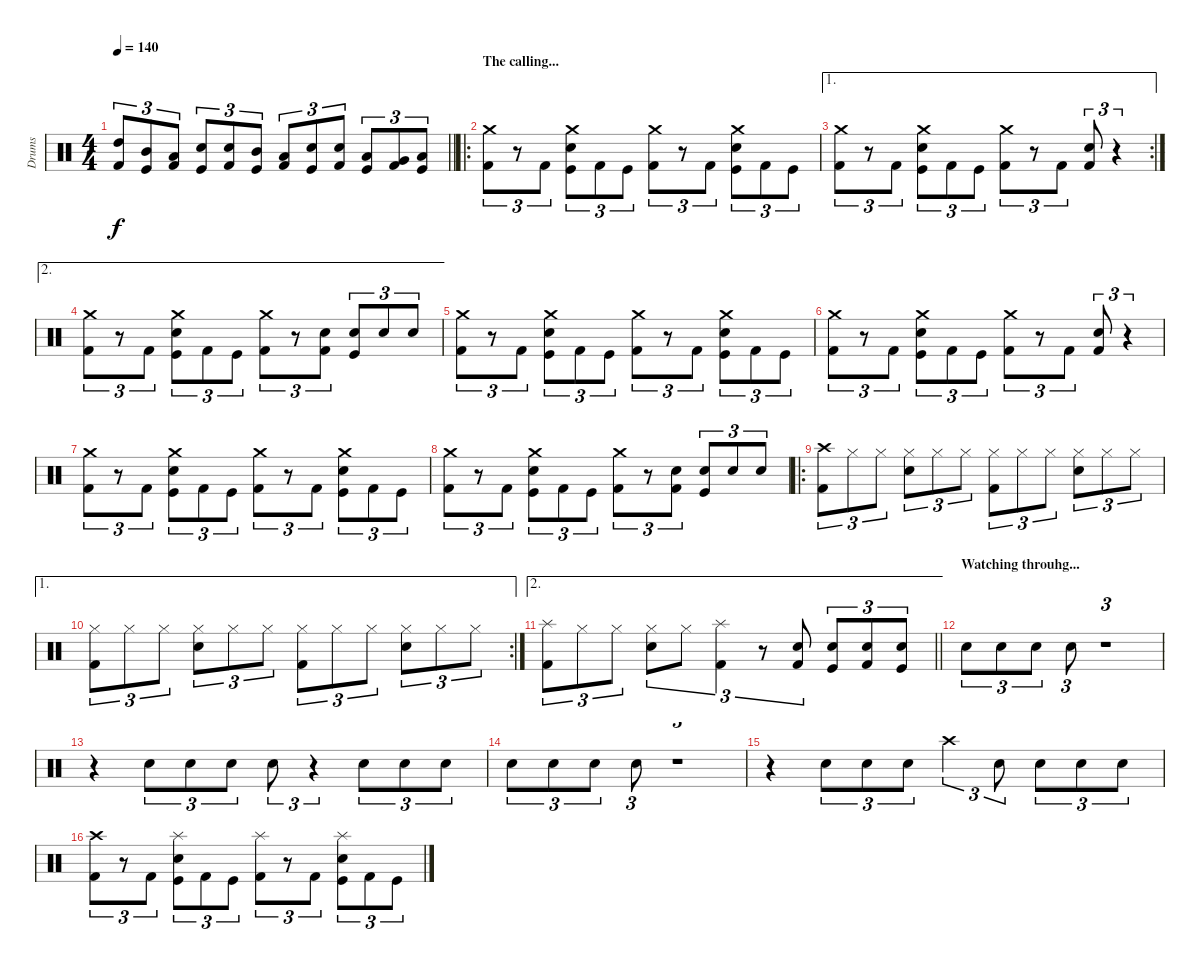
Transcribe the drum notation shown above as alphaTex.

\track ("Drums" "Drums") {instrument percussion}
\staff {score}
\articulation defaults
\ts (4 4)
\tempo 140
\clef neutral
\barLineRight lightlight
\ks c
("High Tom (hit)" "Kick (hit) 2").8{tu (3 2) dy f} ("Mid Tom (hit)" "Kick (hit)").8{tu (3 2)} ("Low Tom (hit)" "Kick (hit) 2").8{tu (3 2)} ("Snare (hit) 2" "Kick (hit)").8{tu (3 2)} ("Snare (hit) 2" "Kick (hit) 2").8{tu (3 2)} ("Mid Tom (hit)" "Kick (hit)").8{tu (3 2)} ("Low Tom (hit)" "Kick (hit) 2").8{tu (3 2)} ("Snare (hit) 2" "Kick (hit)").8{tu (3 2)} ("Snare (hit) 2" "Kick (hit) 2").8{tu (3 2)} ("Low Tom (hit)" "Kick (hit)").8{tu (3 2)} ("Very Low Tom (hit)" "Kick (hit) 2").8{tu (3 2)} ("Low Floor Tom (hit)" "Kick (hit)").8{tu (3 2)} |
\ro
\section ("" "The calling...")
("Crash medium (hit)" "Kick (hit) 2").8{tu (3 2)} r.8{tu (3 2)} "Kick (hit) 2".8{tu (3 2)} ("Crash medium (hit)" "Snare (hit) 2" "Kick (hit)").8{tu (3 2)} "Kick (hit) 2".8{tu (3 2)} "Kick (hit)".8{tu (3 2)} ("Crash medium (hit)" "Kick (hit) 2").8{tu (3 2)} r.8{tu (3 2)} "Kick (hit) 2".8{tu (3 2)} ("Crash medium (hit)" "Snare (hit) 2" "Kick (hit)").8{tu (3 2)} "Kick (hit) 2".8{tu (3 2)} "Kick (hit)".8{tu (3 2)} |
\ae 1
\rc 2
("Crash medium (hit)" "Kick (hit) 2").8{tu (3 2)} r.8{tu (3 2)} "Kick (hit) 2".8{tu (3 2)} ("Crash medium (hit)" "Snare (hit) 2" "Kick (hit)").8{tu (3 2)} "Kick (hit) 2".8{tu (3 2)} "Kick (hit)".8{tu (3 2)} ("Crash medium (hit)" "Kick (hit) 2").8{tu (3 2)} r.8{tu (3 2)} "Kick (hit) 2".8{tu (3 2)} ("Snare (hit) 2" "Kick (hit) 2").8{tu (3 2)} r.4{tu (3 2)} |
\ae 2
("Crash medium (hit)" "Kick (hit) 2").8{tu (3 2)} r.8{tu (3 2)} "Kick (hit) 2".8{tu (3 2)} ("Crash medium (hit)" "Snare (hit) 2" "Kick (hit)").8{tu (3 2)} "Kick (hit) 2".8{tu (3 2)} "Kick (hit)".8{tu (3 2)} ("Crash medium (hit)" "Kick (hit) 2").8{tu (3 2)} r.8{tu (3 2)} ("Snare (hit) 2" "Kick (hit) 2").8{tu (3 2)} ("Snare (hit) 2" "Kick (hit)").8{tu (3 2)} "Snare (hit) 2".8{tu (3 2)} "Snare (hit) 2".8{tu (3 2)} |
("Crash medium (hit)" "Kick (hit) 2").8{tu (3 2)} r.8{tu (3 2)} "Kick (hit) 2".8{tu (3 2)} ("Crash medium (hit)" "Snare (hit) 2" "Kick (hit)").8{tu (3 2)} "Kick (hit) 2".8{tu (3 2)} "Kick (hit)".8{tu (3 2)} ("Crash medium (hit)" "Kick (hit) 2").8{tu (3 2)} r.8{tu (3 2)} "Kick (hit) 2".8{tu (3 2)} ("Crash medium (hit)" "Snare (hit) 2" "Kick (hit)").8{tu (3 2)} "Kick (hit) 2".8{tu (3 2)} "Kick (hit)".8{tu (3 2)} |
("Crash medium (hit)" "Kick (hit) 2").8{tu (3 2)} r.8{tu (3 2)} "Kick (hit) 2".8{tu (3 2)} ("Crash medium (hit)" "Snare (hit) 2" "Kick (hit)").8{tu (3 2)} "Kick (hit) 2".8{tu (3 2)} "Kick (hit)".8{tu (3 2)} ("Crash medium (hit)" "Kick (hit) 2").8{tu (3 2)} r.8{tu (3 2)} "Kick (hit) 2".8{tu (3 2)} ("Snare (hit) 2" "Kick (hit) 2").8{tu (3 2)} r.4{tu (3 2)} |
("Crash medium (hit)" "Kick (hit) 2").8{tu (3 2)} r.8{tu (3 2)} "Kick (hit) 2".8{tu (3 2)} ("Crash medium (hit)" "Snare (hit) 2" "Kick (hit)").8{tu (3 2)} "Kick (hit) 2".8{tu (3 2)} "Kick (hit)".8{tu (3 2)} ("Crash medium (hit)" "Kick (hit) 2").8{tu (3 2)} r.8{tu (3 2)} "Kick (hit) 2".8{tu (3 2)} ("Crash medium (hit)" "Snare (hit) 2" "Kick (hit)").8{tu (3 2)} "Kick (hit) 2".8{tu (3 2)} "Kick (hit)".8{tu (3 2)} |
("Crash medium (hit)" "Kick (hit) 2").8{tu (3 2)} r.8{tu (3 2)} "Kick (hit) 2".8{tu (3 2)} ("Crash medium (hit)" "Snare (hit) 2" "Kick (hit)").8{tu (3 2)} "Kick (hit) 2".8{tu (3 2)} "Kick (hit)".8{tu (3 2)} ("Crash medium (hit)" "Kick (hit) 2").8{tu (3 2)} r.8{tu (3 2)} ("Snare (hit) 2" "Kick (hit) 2").8{tu (3 2)} ("Snare (hit) 2" "Kick (hit)").8{tu (3 2)} "Snare (hit) 2".8{tu (3 2)} "Snare (hit) 2".8{tu (3 2)} |
\ro
("Crash high (hit)" "Kick (hit) 2").8{tu (3 2)} "Hi-Hat (closed)".8{tu (3 2)} "Hi-Hat (closed)".8{tu (3 2)} ("Hi-Hat (closed)" "Snare (hit) 2").8{tu (3 2)} "Hi-Hat (closed)".8{tu (3 2)} "Hi-Hat (closed)".8{tu (3 2)} ("Hi-Hat (closed)" "Kick (hit) 2").8{tu (3 2)} "Hi-Hat (closed)".8{tu (3 2)} "Hi-Hat (closed)".8{tu (3 2)} ("Hi-Hat (closed)" "Snare (hit) 2").8{tu (3 2)} "Hi-Hat (closed)".8{tu (3 2)} "Hi-Hat (closed)".8{tu (3 2)} |
\ae 1
\rc 2
("Hi-Hat (closed)" "Kick (hit) 2").8{tu (3 2)} "Hi-Hat (closed)".8{tu (3 2)} "Hi-Hat (closed)".8{tu (3 2)} ("Hi-Hat (closed)" "Snare (hit) 2").8{tu (3 2)} "Hi-Hat (closed)".8{tu (3 2)} "Hi-Hat (closed)".8{tu (3 2)} ("Hi-Hat (closed)" "Kick (hit) 2").8{tu (3 2)} "Hi-Hat (closed)".8{tu (3 2)} "Hi-Hat (closed)".8{tu (3 2)} ("Hi-Hat (closed)" "Snare (hit) 2").8{tu (3 2)} "Hi-Hat (closed)".8{tu (3 2)} "Hi-Hat (closed)".8{tu (3 2)} |
\ae 2
\barLineRight lightlight
("Splash (hit)" "Kick (hit) 2").8{tu (3 2)} "Hi-Hat (closed)".8{tu (3 2)} "Hi-Hat (closed)".8{tu (3 2)} ("Hi-Hat (closed)" "Snare (hit) 2").8{tu (3 2)} "Hi-Hat (closed)".8{tu (3 2)} ("Splash (hit)" "Kick (hit) 2").4{tu (3 2)} r.8{tu (3 2)} ("Snare (hit) 2" "Kick (hit) 2").8{tu (3 2)} ("Snare (hit) 2" "Kick (hit)").8{tu (3 2)} ("Snare (hit) 2" "Kick (hit) 2").8{tu (3 2)} ("Snare (hit) 2" "Kick (hit)").8{tu (3 2)} |
\section ("" "Watching throuhg...")
"Snare (hit) 2".8{tu (3 2)} "Snare (hit) 2".8{tu (3 2)} "Snare (hit) 2".8{tu (3 2)} "Snare (hit) 2".8{tu (3 2)} r.1{tu (3 2)} |
r.4 "Snare (hit) 2".8{tu (3 2)} "Snare (hit) 2".8{tu (3 2)} "Snare (hit) 2".8{tu (3 2)} "Snare (hit) 2".8{tu (3 2)} r.4{tu (3 2)} "Snare (hit) 2".8{tu (3 2)} "Snare (hit) 2".8{tu (3 2)} "Snare (hit) 2".8{tu (3 2)} |
"Snare (hit) 2".8{tu (3 2)} "Snare (hit) 2".8{tu (3 2)} "Snare (hit) 2".8{tu (3 2)} "Snare (hit) 2".8{tu (3 2)} r.1{tu (3 2)} |
r.4 "Snare (hit) 2".8{tu (3 2)} "Snare (hit) 2".8{tu (3 2)} "Snare (hit) 2".8{tu (3 2)} "Crash high (hit)".4{tu (3 2)} "Snare (hit) 2".8{tu (3 2)} "Snare (hit) 2".8{tu (3 2)} "Snare (hit) 2".8{tu (3 2)} "Snare (hit) 2".8{tu (3 2)} |
("Crash high (hit)" "Kick (hit) 2").8{tu (3 2)} r.8{tu (3 2)} "Kick (hit) 2".8{tu (3 2)} ("Splash (hit)" "Snare (hit) 2" "Kick (hit)").8{tu (3 2)} "Kick (hit) 2".8{tu (3 2)} "Kick (hit)".8{tu (3 2)} ("Splash (hit)" "Kick (hit) 2").8{tu (3 2)} r.8{tu (3 2)} "Kick (hit) 2".8{tu (3 2)} ("Splash (hit)" "Snare (hit) 2" "Kick (hit)").8{tu (3 2)} "Kick (hit) 2".8{tu (3 2)} "Kick (hit)".8{tu (3 2)}
